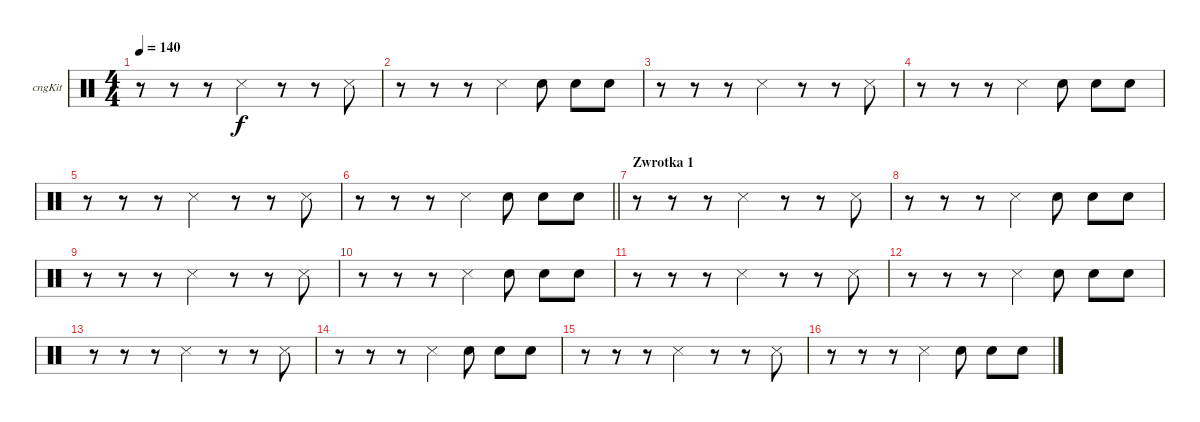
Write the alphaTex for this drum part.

\bracketExtendMode groupsimilarinstruments
\firstSystemTrackNameOrientation horizontal
\otherSystemsTrackNameOrientation horizontal
\track ("Congas" "cngKit") {instrument percussion}
\staff {score}
\articulation defaults
\ts (4 4)
\tempo 140
\clef neutral
\ks c
r.8{dy f} r.8 r.8 "Snare (side stick) 3".4 r.8 r.8 "Snare (side stick) 3".8 |
r.8 r.8 r.8 "Snare (side stick) 3".4 "Snare (hit) 2".8 "Snare (hit) 2".8 "Snare (hit) 2".8 |
r.8 r.8 r.8 "Snare (side stick) 3".4 r.8 r.8 "Snare (side stick) 3".8 |
r.8 r.8 r.8 "Snare (side stick) 3".4 "Snare (hit) 2".8 "Snare (hit) 2".8 "Snare (hit) 2".8 |
r.8 r.8 r.8 "Snare (side stick) 3".4 r.8 r.8 "Snare (side stick) 3".8 |
\barLineRight lightlight
r.8 r.8 r.8 "Snare (side stick) 3".4 "Snare (hit) 2".8 "Snare (hit) 2".8 "Snare (hit) 2".8 |
\section ("" "Zwrotka 1")
r.8 r.8 r.8 "Snare (side stick) 3".4 r.8 r.8 "Snare (side stick) 3".8 |
r.8 r.8 r.8 "Snare (side stick) 3".4 "Snare (hit) 2".8 "Snare (hit) 2".8 "Snare (hit) 2".8 |
r.8 r.8 r.8 "Snare (side stick) 3".4 r.8 r.8 "Snare (side stick) 3".8 |
r.8 r.8 r.8 "Snare (side stick) 3".4 "Snare (hit) 2".8 "Snare (hit) 2".8 "Snare (hit) 2".8 |
r.8 r.8 r.8 "Snare (side stick) 3".4 r.8 r.8 "Snare (side stick) 3".8 |
r.8 r.8 r.8 "Snare (side stick) 3".4 "Snare (hit) 2".8 "Snare (hit) 2".8 "Snare (hit) 2".8 |
r.8 r.8 r.8 "Snare (side stick) 3".4 r.8 r.8 "Snare (side stick) 3".8 |
r.8 r.8 r.8 "Snare (side stick) 3".4 "Snare (hit) 2".8 "Snare (hit) 2".8 "Snare (hit) 2".8 |
r.8 r.8 r.8 "Snare (side stick) 3".4 r.8 r.8 "Snare (side stick) 3".8 |
r.8 r.8 r.8 "Snare (side stick) 3".4 "Snare (hit) 2".8 "Snare (hit) 2".8 "Snare (hit) 2".8
